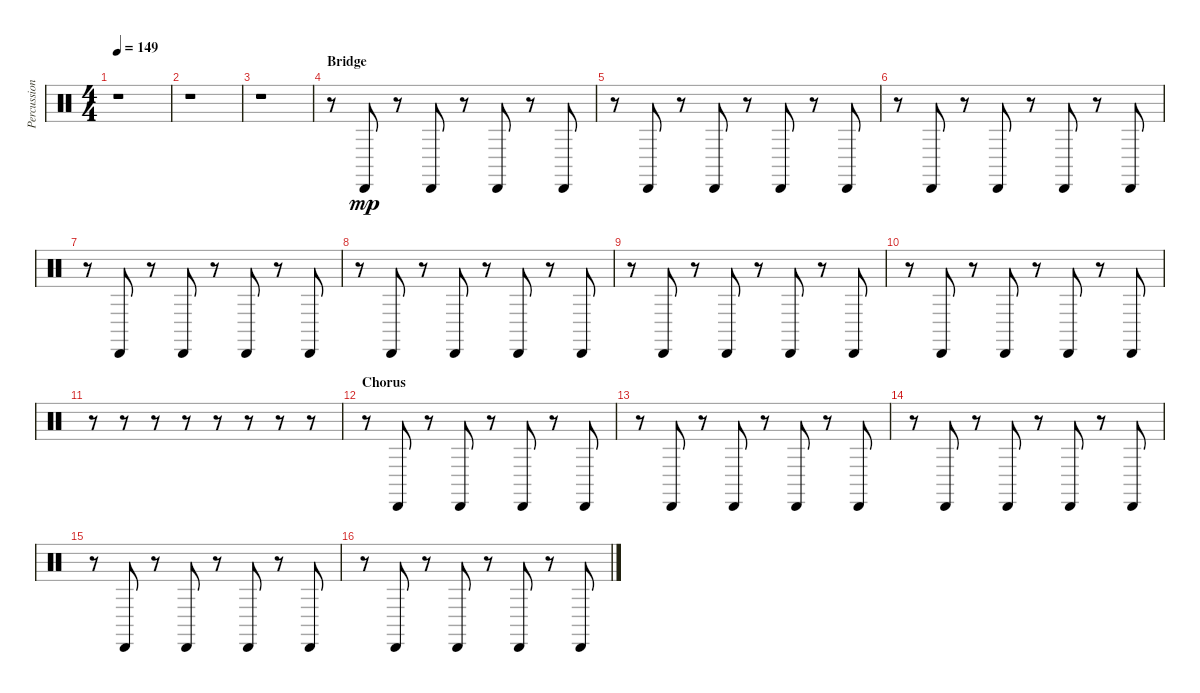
\track ("Percussion 2" "Percussion") {instrument percussion}
\staff {score}
\articulation defaults
\ts (4 4)
\tempo 149
\clef neutral
\ks c
r.1{dy mp} |
r.1 |
r.1 |
\section ("" "Bridge")
r.8 "Cabasa (hit)".8 r.8 "Cabasa (hit)".8 r.8 "Cabasa (hit)".8 r.8 "Cabasa (hit)".8 |
r.8 "Cabasa (hit)".8 r.8 "Cabasa (hit)".8 r.8 "Cabasa (hit)".8 r.8 "Cabasa (hit)".8 |
r.8 "Cabasa (hit)".8 r.8 "Cabasa (hit)".8 r.8 "Cabasa (hit)".8 r.8 "Cabasa (hit)".8 |
r.8 "Cabasa (hit)".8 r.8 "Cabasa (hit)".8 r.8 "Cabasa (hit)".8 r.8 "Cabasa (hit)".8 |
r.8 "Cabasa (hit)".8 r.8 "Cabasa (hit)".8 r.8 "Cabasa (hit)".8 r.8 "Cabasa (hit)".8 |
r.8 "Cabasa (hit)".8 r.8 "Cabasa (hit)".8 r.8 "Cabasa (hit)".8 r.8 "Cabasa (hit)".8 |
r.8 "Cabasa (hit)".8 r.8 "Cabasa (hit)".8 r.8 "Cabasa (hit)".8 r.8 "Cabasa (hit)".8 |
r.8 r.8 r.8 r.8 r.8 r.8 r.8 r.8 |
\section ("" "Chorus")
r.8 "Cabasa (hit)".8 r.8 "Cabasa (hit)".8 r.8 "Cabasa (hit)".8 r.8 "Cabasa (hit)".8 |
r.8 "Cabasa (hit)".8 r.8 "Cabasa (hit)".8 r.8 "Cabasa (hit)".8 r.8 "Cabasa (hit)".8 |
r.8 "Cabasa (hit)".8 r.8 "Cabasa (hit)".8 r.8 "Cabasa (hit)".8 r.8 "Cabasa (hit)".8 |
r.8 "Cabasa (hit)".8 r.8 "Cabasa (hit)".8 r.8 "Cabasa (hit)".8 r.8 "Cabasa (hit)".8 |
r.8 "Cabasa (hit)".8 r.8 "Cabasa (hit)".8 r.8 "Cabasa (hit)".8 r.8 "Cabasa (hit)".8
